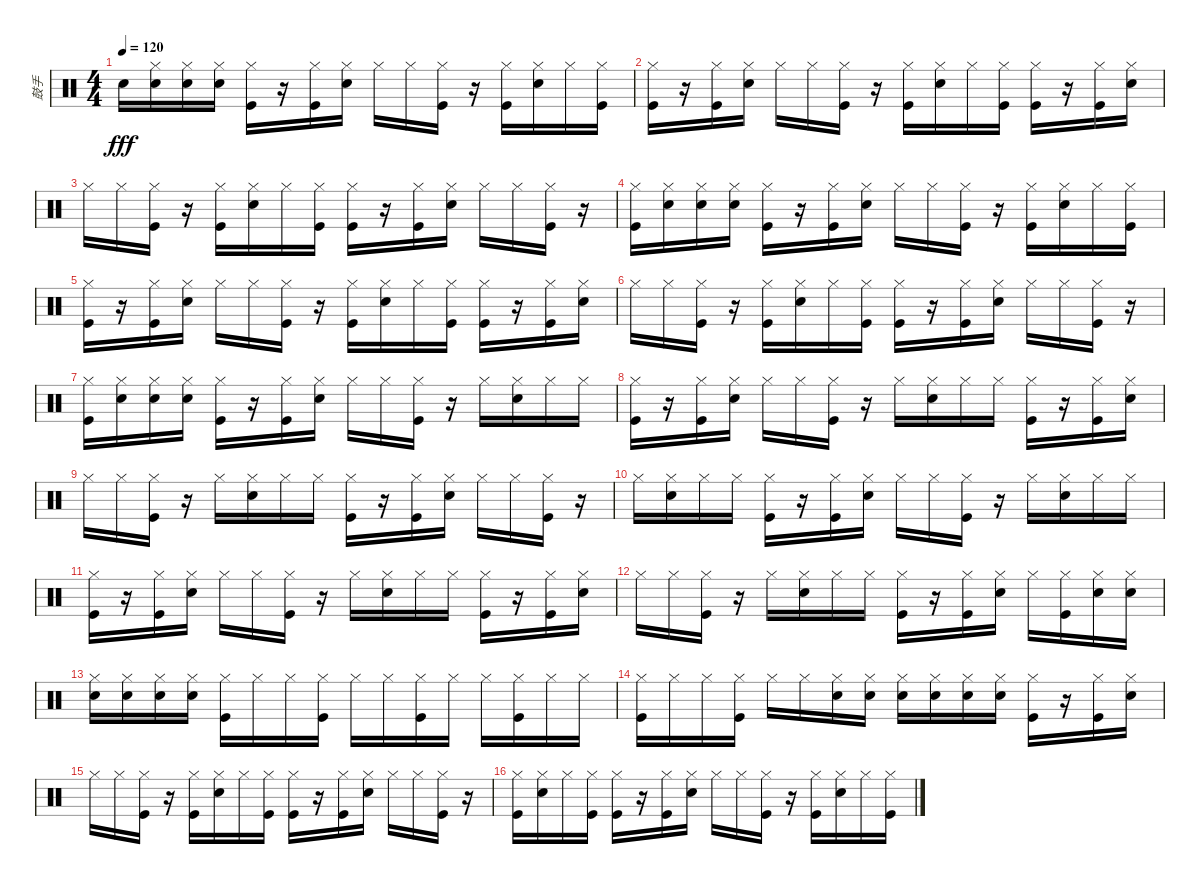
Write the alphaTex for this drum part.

\track ("鼓手" "鼓手") {instrument percussion}
\staff {score}
\articulation defaults
\ts (4 4)
\tempo 120
\clef neutral
\ks c "Snare (hit) 2".16{dy fff}
("Snare (hit) 2" "Hi-Hat (closed)").16 ("Snare (hit) 2" "Hi-Hat (closed)").16 ("Snare (hit) 2" "Hi-Hat (closed)").16 ("Kick (hit)" "Hi-Hat (closed)").16 r.16 ("Kick (hit)" "Hi-Hat (closed)").16 ("Snare (hit) 2" "Hi-Hat (closed)").16 "Hi-Hat (closed)".16 "Hi-Hat (closed)".16 ("Kick (hit)" "Hi-Hat (closed)").16 r.16 ("Kick (hit)" "Hi-Hat (closed)").16 ("Snare (hit) 2" "Hi-Hat (closed)").16 "Hi-Hat (closed)".16 ("Kick (hit)" "Hi-Hat (closed)").16 |
("Kick (hit)" "Hi-Hat (closed)").16 r.16 ("Kick (hit)" "Hi-Hat (closed)").16 ("Snare (hit) 2" "Hi-Hat (closed)").16 "Hi-Hat (closed)".16 "Hi-Hat (closed)".16 ("Kick (hit)" "Hi-Hat (closed)").16 r.16 ("Kick (hit)" "Hi-Hat (closed)").16 ("Snare (hit) 2" "Hi-Hat (closed)").16 "Hi-Hat (closed)".16 ("Kick (hit)" "Hi-Hat (closed)").16 ("Kick (hit)" "Hi-Hat (closed)").16 r.16 ("Kick (hit)" "Hi-Hat (closed)").16 ("Snare (hit) 2" "Hi-Hat (closed)").16 |
"Hi-Hat (closed)".16 "Hi-Hat (closed)".16 ("Kick (hit)" "Hi-Hat (closed)").16 r.16 ("Kick (hit)" "Hi-Hat (closed)").16 ("Snare (hit) 2" "Hi-Hat (closed)").16 "Hi-Hat (closed)".16 ("Kick (hit)" "Hi-Hat (closed)").16 ("Kick (hit)" "Hi-Hat (closed)").16 r.16 ("Kick (hit)" "Hi-Hat (closed)").16 ("Snare (hit) 2" "Hi-Hat (closed)").16 "Hi-Hat (closed)".16 "Hi-Hat (closed)".16 ("Kick (hit)" "Hi-Hat (closed)").16 r.16 |
("Kick (hit)" "Hi-Hat (closed)").16 ("Snare (hit) 2" "Hi-Hat (closed)").16 ("Snare (hit) 2" "Hi-Hat (closed)").16 ("Snare (hit) 2" "Hi-Hat (closed)").16 ("Kick (hit)" "Hi-Hat (closed)").16 r.16 ("Kick (hit)" "Hi-Hat (closed)").16 ("Snare (hit) 2" "Hi-Hat (closed)").16 "Hi-Hat (closed)".16 "Hi-Hat (closed)".16 ("Kick (hit)" "Hi-Hat (closed)").16 r.16 ("Kick (hit)" "Hi-Hat (closed)").16 ("Snare (hit) 2" "Hi-Hat (closed)").16 "Hi-Hat (closed)".16 ("Kick (hit)" "Hi-Hat (closed)").16 |
("Kick (hit)" "Hi-Hat (closed)").16 r.16 ("Kick (hit)" "Hi-Hat (closed)").16 ("Snare (hit) 2" "Hi-Hat (closed)").16 "Hi-Hat (closed)".16 "Hi-Hat (closed)".16 ("Kick (hit)" "Hi-Hat (closed)").16 r.16 ("Kick (hit)" "Hi-Hat (closed)").16 ("Snare (hit) 2" "Hi-Hat (closed)").16 "Hi-Hat (closed)".16 ("Kick (hit)" "Hi-Hat (closed)").16 ("Kick (hit)" "Hi-Hat (closed)").16 r.16 ("Kick (hit)" "Hi-Hat (closed)").16 ("Snare (hit) 2" "Hi-Hat (closed)").16 |
"Hi-Hat (closed)".16 "Hi-Hat (closed)".16 ("Kick (hit)" "Hi-Hat (closed)").16 r.16 ("Kick (hit)" "Hi-Hat (closed)").16 ("Snare (hit) 2" "Hi-Hat (closed)").16 "Hi-Hat (closed)".16 ("Kick (hit)" "Hi-Hat (closed)").16 ("Kick (hit)" "Hi-Hat (closed)").16 r.16 ("Kick (hit)" "Hi-Hat (closed)").16 ("Snare (hit) 2" "Hi-Hat (closed)").16 "Hi-Hat (closed)".16 "Hi-Hat (closed)".16 ("Kick (hit)" "Hi-Hat (closed)").16 r.16 |
("Kick (hit)" "Hi-Hat (closed)").16 ("Snare (hit) 2" "Hi-Hat (closed)").16 ("Snare (hit) 2" "Hi-Hat (closed)").16 ("Snare (hit) 2" "Hi-Hat (closed)").16 ("Kick (hit)" "Hi-Hat (closed)").16 r.16 ("Kick (hit)" "Hi-Hat (closed)").16 ("Snare (hit) 2" "Hi-Hat (closed)").16 "Hi-Hat (closed)".16 "Hi-Hat (closed)".16 ("Kick (hit)" "Hi-Hat (closed)").16 r.16 "Hi-Hat (closed)".16 ("Snare (hit) 2" "Hi-Hat (closed)").16 "Hi-Hat (closed)".16 "Hi-Hat (closed)".16 |
("Kick (hit)" "Hi-Hat (closed)").16 r.16 ("Kick (hit)" "Hi-Hat (closed)").16 ("Snare (hit) 2" "Hi-Hat (closed)").16 "Hi-Hat (closed)".16 "Hi-Hat (closed)".16 ("Kick (hit)" "Hi-Hat (closed)").16 r.16 "Hi-Hat (closed)".16 ("Snare (hit) 2" "Hi-Hat (closed)").16 "Hi-Hat (closed)".16 "Hi-Hat (closed)".16 ("Kick (hit)" "Hi-Hat (closed)").16 r.16 ("Kick (hit)" "Hi-Hat (closed)").16 ("Snare (hit) 2" "Hi-Hat (closed)").16 |
"Hi-Hat (closed)".16 "Hi-Hat (closed)".16 ("Kick (hit)" "Hi-Hat (closed)").16 r.16 "Hi-Hat (closed)".16 ("Snare (hit) 2" "Hi-Hat (closed)").16 "Hi-Hat (closed)".16 "Hi-Hat (closed)".16 ("Kick (hit)" "Hi-Hat (closed)").16 r.16 ("Kick (hit)" "Hi-Hat (closed)").16 ("Snare (hit) 2" "Hi-Hat (closed)").16 "Hi-Hat (closed)".16 "Hi-Hat (closed)".16 ("Kick (hit)" "Hi-Hat (closed)").16 r.16 |
"Hi-Hat (closed)".16 ("Snare (hit) 2" "Hi-Hat (closed)").16 "Hi-Hat (closed)".16 "Hi-Hat (closed)".16 ("Kick (hit)" "Hi-Hat (closed)").16 r.16 ("Kick (hit)" "Hi-Hat (closed)").16 ("Snare (hit) 2" "Hi-Hat (closed)").16 "Hi-Hat (closed)".16 "Hi-Hat (closed)".16 ("Kick (hit)" "Hi-Hat (closed)").16 r.16 "Hi-Hat (closed)".16 ("Snare (hit) 2" "Hi-Hat (closed)").16 "Hi-Hat (closed)".16 "Hi-Hat (closed)".16 |
("Kick (hit)" "Hi-Hat (closed)").16 r.16 ("Kick (hit)" "Hi-Hat (closed)").16 ("Snare (hit) 2" "Hi-Hat (closed)").16 "Hi-Hat (closed)".16 "Hi-Hat (closed)".16 ("Kick (hit)" "Hi-Hat (closed)").16 r.16 "Hi-Hat (closed)".16 ("Snare (hit) 2" "Hi-Hat (closed)").16 "Hi-Hat (closed)".16 "Hi-Hat (closed)".16 ("Kick (hit)" "Hi-Hat (closed)").16 r.16 ("Kick (hit)" "Hi-Hat (closed)").16 ("Snare (hit) 2" "Hi-Hat (closed)").16 |
"Hi-Hat (closed)".16 "Hi-Hat (closed)".16 ("Kick (hit)" "Hi-Hat (closed)").16 r.16 "Hi-Hat (closed)".16 ("Snare (hit) 2" "Hi-Hat (closed)").16 "Hi-Hat (closed)".16 "Hi-Hat (closed)".16 ("Kick (hit)" "Hi-Hat (closed)").16 r.16 ("Kick (hit)" "Hi-Hat (closed)").16 ("Snare (hit) 2" "Hi-Hat (closed)").16 "Hi-Hat (closed)".16 ("Kick (hit)" "Hi-Hat (closed)").16 ("Snare (hit) 2" "Hi-Hat (closed)").16 ("Snare (hit) 2" "Hi-Hat (closed)").16 |
("Snare (hit) 2" "Hi-Hat (closed)").16 ("Snare (hit) 2" "Hi-Hat (closed)").16 ("Snare (hit) 2" "Hi-Hat (closed)").16 ("Snare (hit) 2" "Hi-Hat (closed)").16 ("Kick (hit)" "Hi-Hat (closed)").16 "Hi-Hat (closed)".16 "Hi-Hat (closed)".16 ("Kick (hit)" "Hi-Hat (closed)").16 "Hi-Hat (closed)".16 "Hi-Hat (closed)".16 ("Kick (hit)" "Hi-Hat (closed)").16 "Hi-Hat (closed)".16 "Hi-Hat (closed)".16 ("Kick (hit)" "Hi-Hat (closed)").16 "Hi-Hat (closed)".16 "Hi-Hat (closed)".16 |
("Kick (hit)" "Hi-Hat (closed)").16 "Hi-Hat (closed)".16 "Hi-Hat (closed)".16 ("Kick (hit)" "Hi-Hat (closed)").16 "Hi-Hat (closed)".16 "Hi-Hat (closed)".16 ("Snare (hit) 2" "Hi-Hat (closed)").16 ("Snare (hit) 2" "Hi-Hat (closed)").16 ("Snare (hit) 2" "Hi-Hat (closed)").16 ("Snare (hit) 2" "Hi-Hat (closed)").16 ("Snare (hit) 2" "Hi-Hat (closed)").16 ("Snare (hit) 2" "Hi-Hat (closed)").16 ("Kick (hit)" "Hi-Hat (closed)").16 r.16 ("Kick (hit)" "Hi-Hat (closed)").16 ("Snare (hit) 2" "Hi-Hat (closed)").16 |
"Hi-Hat (closed)".16 "Hi-Hat (closed)".16 ("Kick (hit)" "Hi-Hat (closed)").16 r.16 ("Kick (hit)" "Hi-Hat (closed)").16 ("Snare (hit) 2" "Hi-Hat (closed)").16 "Hi-Hat (closed)".16 ("Kick (hit)" "Hi-Hat (closed)").16 ("Kick (hit)" "Hi-Hat (closed)").16 r.16 ("Kick (hit)" "Hi-Hat (closed)").16 ("Snare (hit) 2" "Hi-Hat (closed)").16 "Hi-Hat (closed)".16 "Hi-Hat (closed)".16 ("Kick (hit)" "Hi-Hat (closed)").16 r.16 |
("Kick (hit)" "Hi-Hat (closed)").16 ("Snare (hit) 2" "Hi-Hat (closed)").16 "Hi-Hat (closed)".16 ("Kick (hit)" "Hi-Hat (closed)").16 ("Kick (hit)" "Hi-Hat (closed)").16 r.16 ("Kick (hit)" "Hi-Hat (closed)").16 ("Snare (hit) 2" "Hi-Hat (closed)").16 "Hi-Hat (closed)".16 "Hi-Hat (closed)".16 ("Kick (hit)" "Hi-Hat (closed)").16 r.16 ("Kick (hit)" "Hi-Hat (closed)").16 ("Snare (hit) 2" "Hi-Hat (closed)").16 "Hi-Hat (closed)".16 ("Kick (hit)" "Hi-Hat (closed)").16
